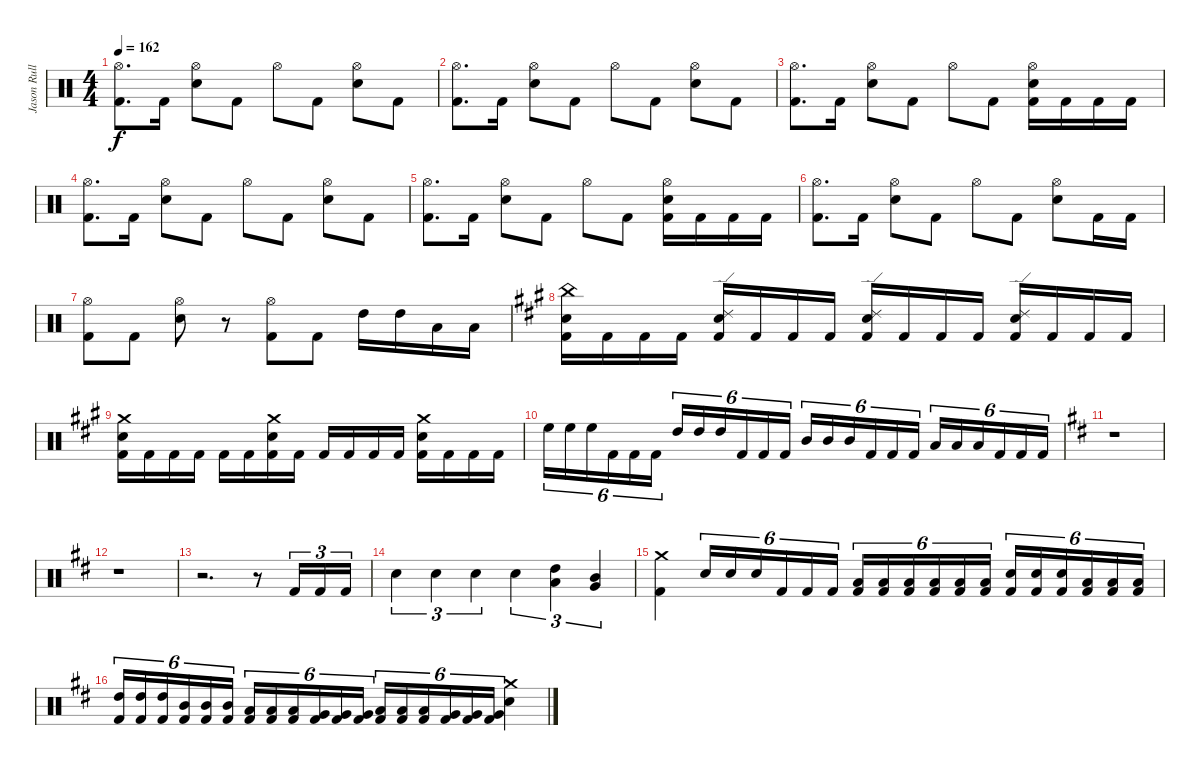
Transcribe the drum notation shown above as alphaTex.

\track ("Jason Rullo" "Jason Rull") {instrument percussion}
\staff {score}
\articulation defaults
\ts (4 4)
\tempo 162
\clef neutral
\ks aminor
("Hi-Hat (open)" "Kick (hit) 2").8{d dy f} "Kick (hit) 2".16 ("Hi-Hat (open)" "Electric Snare (hit)").8 "Kick (hit) 2".8 "Hi-Hat (open)".8 "Kick (hit) 2".8 ("Hi-Hat (open)" "Electric Snare (hit)").8 "Kick (hit) 2".8 |
("Hi-Hat (open)" "Kick (hit) 2").8{d} "Kick (hit) 2".16 ("Hi-Hat (open)" "Electric Snare (hit)").8 "Kick (hit) 2".8 "Hi-Hat (open)".8 "Kick (hit) 2".8 ("Hi-Hat (open)" "Electric Snare (hit)").8 "Kick (hit) 2".8 |
("Hi-Hat (open)" "Kick (hit) 2").8{d} "Kick (hit) 2".16 ("Hi-Hat (open)" "Electric Snare (hit)").8 "Kick (hit) 2".8 "Hi-Hat (open)".8 "Kick (hit) 2".8 ("Kick (hit) 2" "Hi-Hat (open)" "Electric Snare (hit)").16 "Kick (hit) 2".16 "Kick (hit) 2".16 "Kick (hit) 2".16 |
("Hi-Hat (open)" "Kick (hit) 2").8{d} "Kick (hit) 2".16 ("Hi-Hat (open)" "Electric Snare (hit)").8 "Kick (hit) 2".8 "Hi-Hat (open)".8 "Kick (hit) 2".8 ("Hi-Hat (open)" "Electric Snare (hit)").8 "Kick (hit) 2".8 |
("Hi-Hat (open)" "Kick (hit) 2").8{d} "Kick (hit) 2".16 ("Hi-Hat (open)" "Electric Snare (hit)").8 "Kick (hit) 2".8 "Hi-Hat (open)".8 "Kick (hit) 2".8 ("Kick (hit) 2" "Hi-Hat (open)" "Electric Snare (hit)").16 "Kick (hit) 2".16 "Kick (hit) 2".16 "Kick (hit) 2".16 |
("Hi-Hat (open)" "Kick (hit) 2").8{d} "Kick (hit) 2".16 ("Hi-Hat (open)" "Electric Snare (hit)").8 "Kick (hit) 2".8 "Hi-Hat (open)".8 "Kick (hit) 2".8 ("Hi-Hat (open)" "Electric Snare (hit)").8 "Kick (hit) 2".16 "Kick (hit) 2".16 |
("Kick (hit) 2" "Hi-Hat (open)").8 "Kick (hit) 2".8 ("Electric Snare (hit)" "Hi-Hat (open)").8 r.8 ("Kick (hit) 2" "Hi-Hat (open)").8 "Kick (hit) 2".8 "High Tom (hit)".16 "High Tom (hit)".16 "Low Tom (hit)".16 "Low Tom (hit)".16 |
\ks a
("Kick (hit) 2" "Electric Snare (hit)" "China (hit)").16 "Kick (hit) 2".16 "Kick (hit) 2".16 "Kick (hit) 2".16 ("Kick (hit) 2" "Electric Snare (hit)" "Ride (edge) 2").16 "Kick (hit) 2".16 "Kick (hit) 2".16 "Kick (hit) 2".16 ("Kick (hit) 2" "Electric Snare (hit)" "Ride (edge) 2").16 "Kick (hit) 2".16 "Kick (hit) 2".16 "Kick (hit) 2".16 ("Kick (hit) 2" "Electric Snare (hit)" "Ride (edge) 2").16 "Kick (hit) 2".16 "Kick (hit) 2".16 "Kick (hit) 2".16 |
("Crash medium (hit)" "Electric Snare (hit)" "Kick (hit) 2").16 "Kick (hit) 2".16 "Kick (hit) 2".16 "Kick (hit) 2".16 "Kick (hit) 2".16 "Kick (hit) 2".16 ("Crash medium (hit)" "Electric Snare (hit)" "Kick (hit) 2").16 "Kick (hit) 2".16 "Kick (hit) 2".16 "Kick (hit) 2".16 "Kick (hit) 2".16 "Kick (hit) 2".16 ("Crash medium (hit)" "Electric Snare (hit)" "Kick (hit) 2").16 "Kick (hit) 2".16 "Kick (hit) 2".16 "Kick (hit) 2".16 |
"High Floor Tom (hit)".16{tu (6 4)} "High Floor Tom (hit)".16{tu (6 4)} "High Floor Tom (hit)".16{tu (6 4)} "Kick (hit) 2".16{tu (6 4)} "Kick (hit) 2".16{tu (6 4)} "Kick (hit) 2".16{tu (6 4)} "High Tom (hit)".16{tu (6 4)} "High Tom (hit)".16{tu (6 4)} "High Tom (hit)".16{tu (6 4)} "Kick (hit) 2".16{tu (6 4)} "Kick (hit) 2".16{tu (6 4)} "Kick (hit) 2".16{tu (6 4)} "Mid Tom (hit)".16{tu (6 4)} "Mid Tom (hit)".16{tu (6 4)} "Mid Tom (hit)".16{tu (6 4)} "Kick (hit) 2".16{tu (6 4)} "Kick (hit) 2".16{tu (6 4)} "Kick (hit) 2".16{tu (6 4)} "Low Tom (hit)".16{tu (6 4)} "Low Tom (hit)".16{tu (6 4)} "Low Tom (hit)".16{tu (6 4)} "Kick (hit) 2".16{tu (6 4)} "Kick (hit) 2".16{tu (6 4)} "Kick (hit) 2".16{tu (6 4)} |
\ks d
r.1 |
r.1 |
r.2{d} r.8 "Kick (hit) 2".16{tu (3 2)} "Kick (hit) 2".16{tu (3 2)} "Kick (hit) 2".16{tu (3 2)} |
"Electric Snare (hit)".4{tu (3 2)} "Electric Snare (hit)".4{tu (3 2)} "Electric Snare (hit)".4{tu (3 2)} "Electric Snare (hit)".4{tu (3 2)} ("High Tom (hit)" "Low Tom (hit)").4{tu (3 2)} ("Mid Tom (hit)" "Very Low Tom (hit)").4{tu (3 2)} |
("Crash medium (hit)" "Kick (hit) 2").4 "Electric Snare (hit)".16{tu (6 4)} "Electric Snare (hit)".16{tu (6 4)} "Electric Snare (hit)".16{tu (6 4)} "Kick (hit) 2".16{tu (6 4)} "Kick (hit) 2".16{tu (6 4)} "Kick (hit) 2".16{tu (6 4)} ("Kick (hit) 2" "Low Tom (hit)").16{tu (6 4)} ("Kick (hit) 2" "Low Tom (hit)").16{tu (6 4)} ("Kick (hit) 2" "Low Tom (hit)").16{tu (6 4)} ("Kick (hit) 2" "Low Floor Tom (hit)").16{tu (6 4)} ("Kick (hit) 2" "Low Floor Tom (hit)").16{tu (6 4)} ("Kick (hit) 2" "Low Floor Tom (hit)").16{tu (6 4)} ("Kick (hit) 2" "Electric Snare (hit)").16{tu (6 4)} ("Kick (hit) 2" "Electric Snare (hit)").16{tu (6 4)} ("Kick (hit) 2" "Electric Snare (hit)").16{tu (6 4)} ("Low Tom (hit)" "Kick (hit) 2").16{tu (6 4)} ("Low Tom (hit)" "Kick (hit) 2").16{tu (6 4)} ("Low Tom (hit)" "Kick (hit) 2").16{tu (6 4)} |
("High Tom (hit)" "Kick (hit) 2").16{tu (6 4)} ("High Tom (hit)" "Kick (hit) 2").16{tu (6 4)} ("High Tom (hit)" "Kick (hit) 2").16{tu (6 4)} ("Mid Tom (hit)" "Kick (hit) 2").16{tu (6 4)} ("Mid Tom (hit)" "Kick (hit) 2").16{tu (6 4)} ("Mid Tom (hit)" "Kick (hit) 2").16{tu (6 4)} ("Low Tom (hit)" "Kick (hit) 2").16{tu (6 4)} ("Low Tom (hit)" "Kick (hit) 2").16{tu (6 4)} ("Low Tom (hit)" "Kick (hit) 2").16{tu (6 4)} ("Very Low Tom (hit)" "Kick (hit) 2").16{tu (6 4)} ("Very Low Tom (hit)" "Kick (hit) 2").16{tu (6 4)} ("Very Low Tom (hit)" "Kick (hit) 2").16{tu (6 4)} ("Kick (hit) 2" "Low Tom (hit)").16{tu (6 4)} ("Kick (hit) 2" "Low Tom (hit)").16{tu (6 4)} ("Kick (hit) 2" "Low Tom (hit)").16{tu (6 4)} ("Kick (hit) 2" "Very Low Tom (hit)").16{tu (6 4)} ("Kick (hit) 2" "Very Low Tom (hit)").16{tu (6 4)} ("Kick (hit) 2" "Very Low Tom (hit)").16{tu (6 4)} ("Crash medium (hit)" "Electric Snare (hit)").4
